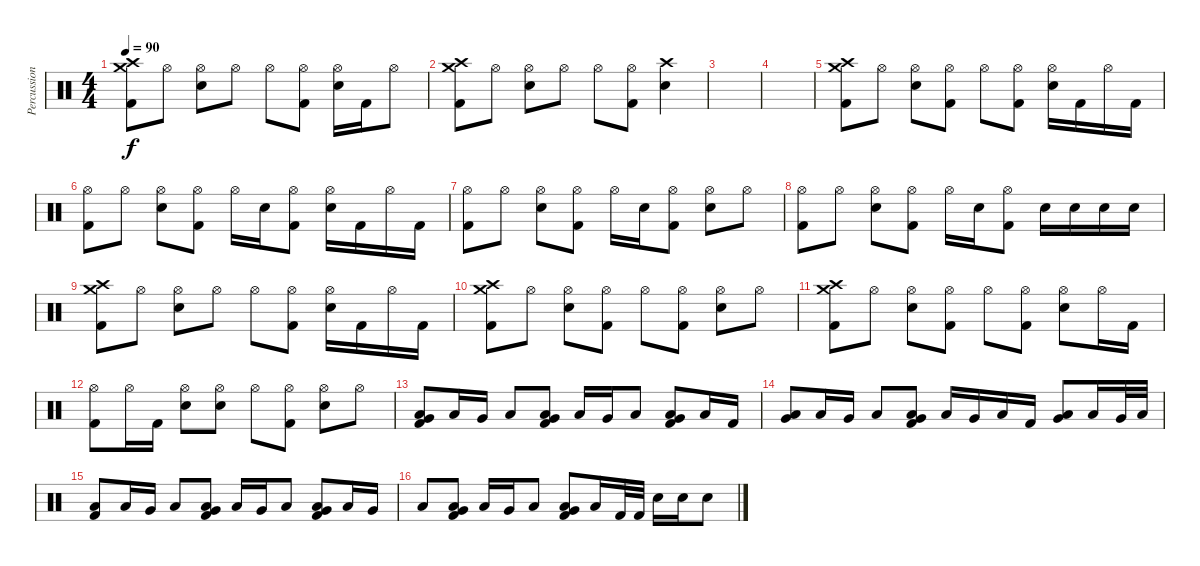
\track ("Percussion" "Percussion") {instrument percussion}
\staff {score}
\articulation defaults
\ts (4 4)
\tempo 90
\clef neutral
\ks c
("Crash high (hit)" "Crash medium (hit)" "Kick (hit) 2").8{dy f} "Hi-Hat (open)".8 ("Hi-Hat (open)" "Snare (hit) 2").8 "Hi-Hat (open)".8 "Hi-Hat (open)".8 ("Hi-Hat (open)" "Kick (hit) 2").8 ("Hi-Hat (open)" "Snare (hit) 2").16 "Kick (hit) 2".16 "Hi-Hat (open)".8 |
("Crash high (hit)" "Crash medium (hit)" "Kick (hit) 2").8 "Hi-Hat (open)".8 ("Hi-Hat (open)" "Snare (hit) 2").8 "Hi-Hat (open)".8 "Hi-Hat (open)".8 ("Hi-Hat (open)" "Kick (hit) 2").8 ("Crash high (hit)" "Snare (hit) 2").4 |
|
|
("Crash high (hit)" "Crash medium (hit)" "Kick (hit) 2").8 "Hi-Hat (open)".8 ("Hi-Hat (open)" "Snare (hit) 2").8 ("Hi-Hat (open)" "Kick (hit) 2").8 "Hi-Hat (open)".8 ("Hi-Hat (open)" "Kick (hit) 2").8 ("Hi-Hat (open)" "Snare (hit) 2").16 "Kick (hit) 2".16 "Hi-Hat (open)".16 "Kick (hit) 2".16 |
("Hi-Hat (open)" "Kick (hit) 2").8 "Hi-Hat (open)".8 ("Hi-Hat (open)" "Snare (hit) 2").8 ("Hi-Hat (open)" "Kick (hit) 2").8 "Hi-Hat (open)".16 "Snare (hit) 2".16 ("Hi-Hat (open)" "Kick (hit) 2").8 ("Hi-Hat (open)" "Snare (hit) 2").16 "Kick (hit) 2".16 "Hi-Hat (open)".16 "Kick (hit) 2".16 |
("Hi-Hat (open)" "Kick (hit) 2").8 "Hi-Hat (open)".8 ("Hi-Hat (open)" "Snare (hit) 2").8 ("Hi-Hat (open)" "Kick (hit) 2").8 "Hi-Hat (open)".16 "Snare (hit) 2".16 ("Hi-Hat (open)" "Kick (hit) 2").8 ("Hi-Hat (open)" "Snare (hit) 2").8 "Hi-Hat (open)".8 |
("Hi-Hat (open)" "Kick (hit) 2").8 "Hi-Hat (open)".8 ("Hi-Hat (open)" "Snare (hit) 2").8 ("Hi-Hat (open)" "Kick (hit) 2").8 "Hi-Hat (open)".16 "Snare (hit) 2".16 ("Hi-Hat (open)" "Kick (hit) 2").8 "Snare (hit) 2".16 "Snare (hit) 2".16 "Snare (hit) 2".16 "Snare (hit) 2".16 |
("Crash high (hit)" "Crash medium (hit)" "Kick (hit) 2").8 "Hi-Hat (open)".8 ("Hi-Hat (open)" "Snare (hit) 2").8 "Hi-Hat (open)".8 "Hi-Hat (open)".8 ("Hi-Hat (open)" "Kick (hit) 2").8 ("Hi-Hat (open)" "Snare (hit) 2").16 "Kick (hit) 2".16 "Hi-Hat (open)".16 "Kick (hit) 2".16 |
("Crash high (hit)" "Crash medium (hit)" "Kick (hit) 2").8 "Hi-Hat (open)".8 ("Hi-Hat (open)" "Snare (hit) 2").8 ("Hi-Hat (open)" "Kick (hit) 2").8 "Hi-Hat (open)".8 ("Hi-Hat (open)" "Kick (hit) 2").8 ("Hi-Hat (open)" "Snare (hit) 2").8 "Hi-Hat (open)".8 |
("Crash high (hit)" "Crash medium (hit)" "Kick (hit) 2").8 "Hi-Hat (open)".8 ("Hi-Hat (open)" "Snare (hit) 2").8 ("Hi-Hat (open)" "Kick (hit) 2").8 "Hi-Hat (open)".8 ("Hi-Hat (open)" "Kick (hit) 2").8 ("Hi-Hat (open)" "Snare (hit) 2").8 "Hi-Hat (open)".16 "Kick (hit) 2".16 |
("Hi-Hat (open)" "Kick (hit) 2").8 "Hi-Hat (open)".16 "Kick (hit) 2".16 ("Hi-Hat (open)" "Snare (hit) 2").8 ("Hi-Hat (open)" "Snare (hit) 2").8 "Hi-Hat (open)".8 ("Hi-Hat (open)" "Kick (hit) 2").8 ("Hi-Hat (open)" "Snare (hit) 2").8 "Hi-Hat (open)".8 |
("Very Low Tom (hit)" "Low Floor Tom (hit)" "Kick (hit) 2").8 "Low Floor Tom (hit)".16 "Very Low Tom (hit)".16 "Low Floor Tom (hit)".8 ("Very Low Tom (hit)" "Low Floor Tom (hit)" "Kick (hit) 2").8 "Low Floor Tom (hit)".16 "Very Low Tom (hit)".16 "Low Floor Tom (hit)".8 ("Very Low Tom (hit)" "Low Floor Tom (hit)" "Kick (hit) 2").8 "Low Floor Tom (hit)".16 "Kick (hit) 2".16 |
("Very Low Tom (hit)" "Low Floor Tom (hit)").8 "Low Floor Tom (hit)".16 "Very Low Tom (hit)".16 "Low Floor Tom (hit)".8 ("Very Low Tom (hit)" "Low Floor Tom (hit)" "Kick (hit) 2").8 "Low Floor Tom (hit)".16 "Very Low Tom (hit)".16 "Low Floor Tom (hit)".16 "Kick (hit) 2".16 ("Very Low Tom (hit)" "Low Floor Tom (hit)").8 "Low Floor Tom (hit)".16 "Very Low Tom (hit)".32 "Low Floor Tom (hit)".32 |
("Low Floor Tom (hit)" "Kick (hit) 2").8 "Low Floor Tom (hit)".16 "Very Low Tom (hit)".16 "Low Floor Tom (hit)".8 ("Very Low Tom (hit)" "Low Floor Tom (hit)" "Kick (hit) 2").8 "Low Floor Tom (hit)".16 "Very Low Tom (hit)".16 "Low Floor Tom (hit)".8 ("Very Low Tom (hit)" "Low Floor Tom (hit)" "Kick (hit) 2").8 "Low Floor Tom (hit)".16 "Very Low Tom (hit)".16 |
"Low Floor Tom (hit)".8 ("Very Low Tom (hit)" "Low Floor Tom (hit)" "Kick (hit) 2").8 "Low Floor Tom (hit)".16 "Very Low Tom (hit)".16 "Low Floor Tom (hit)".8 ("Very Low Tom (hit)" "Low Floor Tom (hit)" "Kick (hit) 2").8 "Low Floor Tom (hit)".16 "Kick (hit) 2".32 "Kick (hit) 2".32 "Snare (hit) 2".16 "Snare (hit) 2".16 "Snare (hit) 2".8
